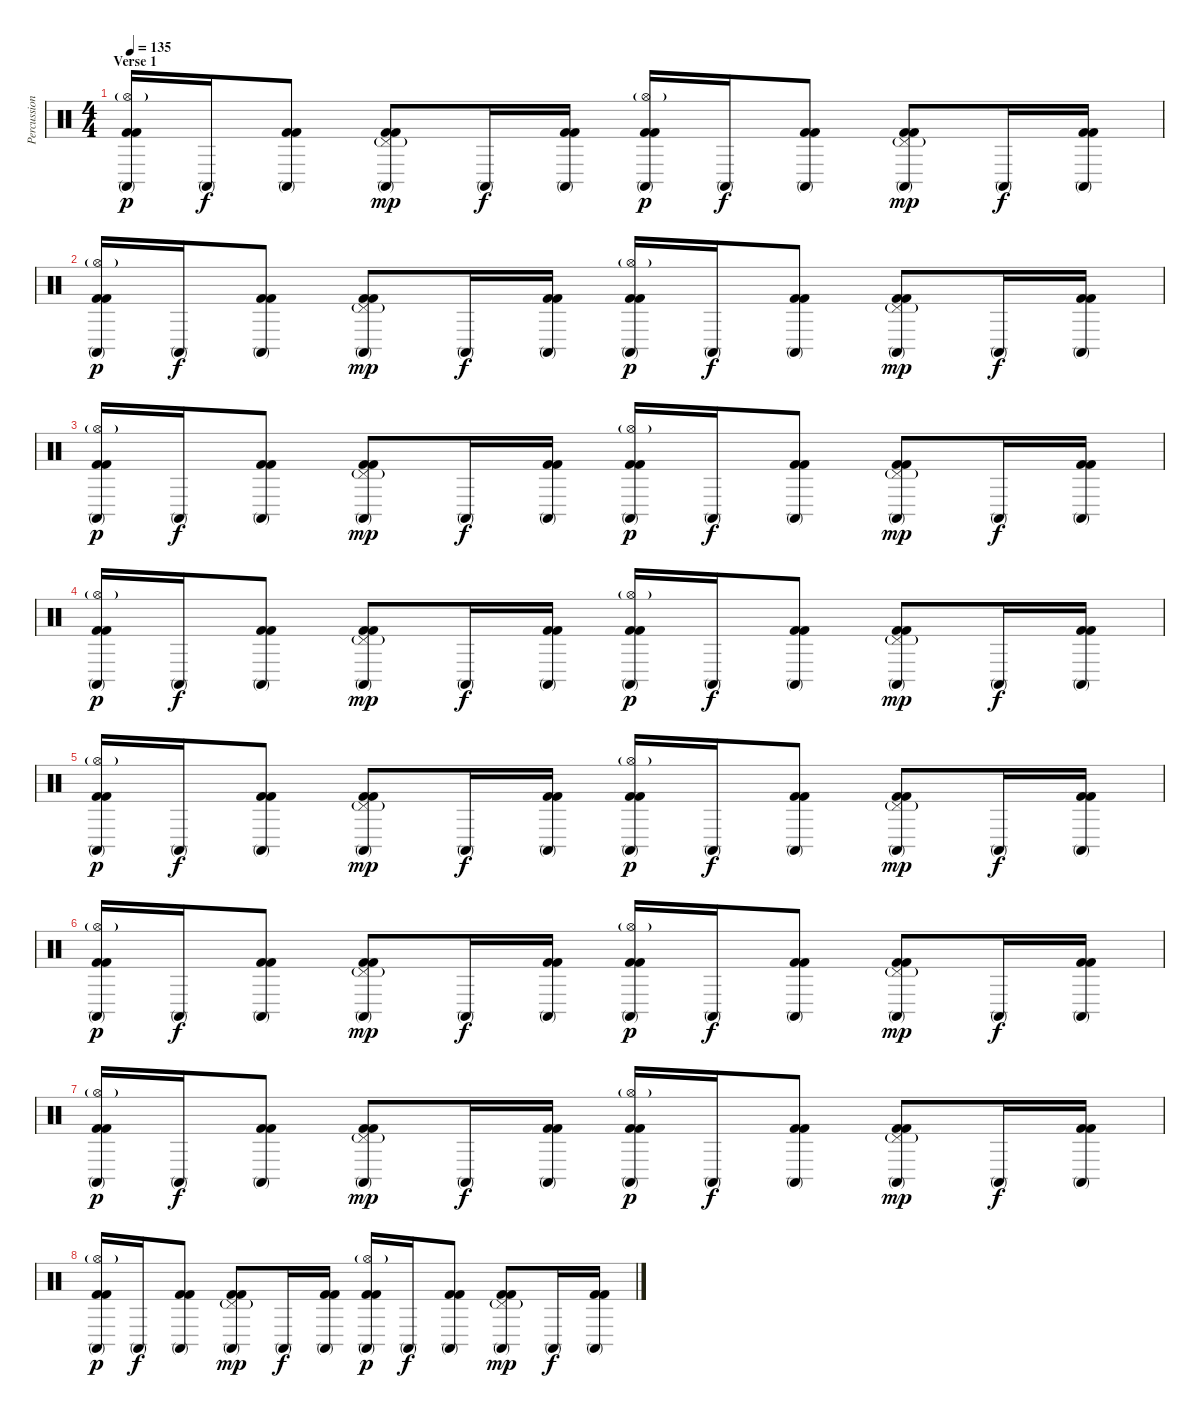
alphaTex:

\track ("Percussion" "Percussion") {instrument percussion}
\staff {score}
\articulation defaults
\ts (4 4)
\section ("" "Verse 1")
\tempo 135
\clef neutral
\ks c
("Conga high (mute)" "Hi-Hat (open)"{g} "Kick (hit) 2" "Kick (hit) 2").16{dy p} "Conga high (mute)".16{dy f} ("Conga high (mute)" "Kick (hit) 2" "Kick (hit) 2").8 ("Conga high (mute)" "Pedal Hi-Hat (hit)"{g} "Kick (hit) 2" "Kick (hit) 2").8{dy mp} "Conga high (mute)".16{dy f} ("Conga high (mute)" "Kick (hit) 2" "Kick (hit) 2").16 ("Conga high (mute)" "Hi-Hat (open)"{g} "Kick (hit) 2" "Kick (hit) 2").16{dy p} "Conga high (mute)".16{dy f} ("Conga high (mute)" "Kick (hit) 2" "Kick (hit) 2").8 ("Conga high (mute)" "Pedal Hi-Hat (hit)"{g} "Kick (hit) 2" "Kick (hit) 2").8{dy mp} "Conga high (mute)".16{dy f} ("Conga high (mute)" "Kick (hit) 2" "Kick (hit) 2").16 |
("Conga high (mute)" "Hi-Hat (open)"{g} "Kick (hit) 2" "Kick (hit) 2").16{dy p} "Conga high (mute)".16{dy f} ("Conga high (mute)" "Kick (hit) 2" "Kick (hit) 2").8 ("Conga high (mute)" "Pedal Hi-Hat (hit)"{g} "Kick (hit) 2" "Kick (hit) 2").8{dy mp} "Conga high (mute)".16{dy f} ("Conga high (mute)" "Kick (hit) 2" "Kick (hit) 2").16 ("Conga high (mute)" "Hi-Hat (open)"{g} "Kick (hit) 2" "Kick (hit) 2").16{dy p} "Conga high (mute)".16{dy f} ("Conga high (mute)" "Kick (hit) 2" "Kick (hit) 2").8 ("Conga high (mute)" "Pedal Hi-Hat (hit)"{g} "Kick (hit) 2" "Kick (hit) 2").8{dy mp} "Conga high (mute)".16{dy f} ("Conga high (mute)" "Kick (hit) 2" "Kick (hit) 2").16 |
("Conga high (mute)" "Hi-Hat (open)"{g} "Kick (hit) 2" "Kick (hit) 2").16{dy p} "Conga high (mute)".16{dy f} ("Conga high (mute)" "Kick (hit) 2" "Kick (hit) 2").8 ("Conga high (mute)" "Pedal Hi-Hat (hit)"{g} "Kick (hit) 2" "Kick (hit) 2").8{dy mp} "Conga high (mute)".16{dy f} ("Conga high (mute)" "Kick (hit) 2" "Kick (hit) 2").16 ("Conga high (mute)" "Hi-Hat (open)"{g} "Kick (hit) 2" "Kick (hit) 2").16{dy p} "Conga high (mute)".16{dy f} ("Conga high (mute)" "Kick (hit) 2" "Kick (hit) 2").8 ("Conga high (mute)" "Pedal Hi-Hat (hit)"{g} "Kick (hit) 2" "Kick (hit) 2").8{dy mp} "Conga high (mute)".16{dy f} ("Conga high (mute)" "Kick (hit) 2" "Kick (hit) 2").16 |
("Conga high (mute)" "Hi-Hat (open)"{g} "Kick (hit) 2" "Kick (hit) 2").16{dy p} "Conga high (mute)".16{dy f} ("Conga high (mute)" "Kick (hit) 2" "Kick (hit) 2").8 ("Conga high (mute)" "Pedal Hi-Hat (hit)"{g} "Kick (hit) 2" "Kick (hit) 2").8{dy mp} "Conga high (mute)".16{dy f} ("Conga high (mute)" "Kick (hit) 2" "Kick (hit) 2").16 ("Conga high (mute)" "Hi-Hat (open)"{g} "Kick (hit) 2" "Kick (hit) 2").16{dy p} "Conga high (mute)".16{dy f} ("Conga high (mute)" "Kick (hit) 2" "Kick (hit) 2").8 ("Conga high (mute)" "Pedal Hi-Hat (hit)"{g} "Kick (hit) 2" "Kick (hit) 2").8{dy mp} "Conga high (mute)".16{dy f} ("Conga high (mute)" "Kick (hit) 2" "Kick (hit) 2").16 |
("Conga high (mute)" "Hi-Hat (open)"{g} "Kick (hit) 2" "Kick (hit) 2").16{dy p} "Conga high (mute)".16{dy f} ("Conga high (mute)" "Kick (hit) 2" "Kick (hit) 2").8 ("Conga high (mute)" "Pedal Hi-Hat (hit)"{g} "Kick (hit) 2" "Kick (hit) 2").8{dy mp} "Conga high (mute)".16{dy f} ("Conga high (mute)" "Kick (hit) 2" "Kick (hit) 2").16 ("Conga high (mute)" "Hi-Hat (open)"{g} "Kick (hit) 2" "Kick (hit) 2").16{dy p} "Conga high (mute)".16{dy f} ("Conga high (mute)" "Kick (hit) 2" "Kick (hit) 2").8 ("Conga high (mute)" "Pedal Hi-Hat (hit)"{g} "Kick (hit) 2" "Kick (hit) 2").8{dy mp} "Conga high (mute)".16{dy f} ("Conga high (mute)" "Kick (hit) 2" "Kick (hit) 2").16 |
("Conga high (mute)" "Hi-Hat (open)"{g} "Kick (hit) 2" "Kick (hit) 2").16{dy p} "Conga high (mute)".16{dy f} ("Conga high (mute)" "Kick (hit) 2" "Kick (hit) 2").8 ("Conga high (mute)" "Pedal Hi-Hat (hit)"{g} "Kick (hit) 2" "Kick (hit) 2").8{dy mp} "Conga high (mute)".16{dy f} ("Conga high (mute)" "Kick (hit) 2" "Kick (hit) 2").16 ("Conga high (mute)" "Hi-Hat (open)"{g} "Kick (hit) 2" "Kick (hit) 2").16{dy p} "Conga high (mute)".16{dy f} ("Conga high (mute)" "Kick (hit) 2" "Kick (hit) 2").8 ("Conga high (mute)" "Pedal Hi-Hat (hit)"{g} "Kick (hit) 2" "Kick (hit) 2").8{dy mp} "Conga high (mute)".16{dy f} ("Conga high (mute)" "Kick (hit) 2" "Kick (hit) 2").16 |
("Conga high (mute)" "Hi-Hat (open)"{g} "Kick (hit) 2" "Kick (hit) 2").16{dy p} "Conga high (mute)".16{dy f} ("Conga high (mute)" "Kick (hit) 2" "Kick (hit) 2").8 ("Conga high (mute)" "Pedal Hi-Hat (hit)"{g} "Kick (hit) 2" "Kick (hit) 2").8{dy mp} "Conga high (mute)".16{dy f} ("Conga high (mute)" "Kick (hit) 2" "Kick (hit) 2").16 ("Conga high (mute)" "Hi-Hat (open)"{g} "Kick (hit) 2" "Kick (hit) 2").16{dy p} "Conga high (mute)".16{dy f} ("Conga high (mute)" "Kick (hit) 2" "Kick (hit) 2").8 ("Conga high (mute)" "Pedal Hi-Hat (hit)"{g} "Kick (hit) 2" "Kick (hit) 2").8{dy mp} "Conga high (mute)".16{dy f} ("Conga high (mute)" "Kick (hit) 2" "Kick (hit) 2").16 |
("Conga high (mute)" "Hi-Hat (open)"{g} "Kick (hit) 2" "Kick (hit) 2").16{dy p} "Conga high (mute)".16{dy f} ("Conga high (mute)" "Kick (hit) 2" "Kick (hit) 2").8 ("Conga high (mute)" "Pedal Hi-Hat (hit)"{g} "Kick (hit) 2" "Kick (hit) 2").8{dy mp} "Conga high (mute)".16{dy f} ("Conga high (mute)" "Kick (hit) 2" "Kick (hit) 2").16 ("Conga high (mute)" "Hi-Hat (open)"{g} "Kick (hit) 2" "Kick (hit) 2").16{dy p} "Conga high (mute)".16{dy f} ("Conga high (mute)" "Kick (hit) 2" "Kick (hit) 2").8 ("Conga high (mute)" "Pedal Hi-Hat (hit)"{g} "Kick (hit) 2" "Kick (hit) 2").8{dy mp} "Conga high (mute)".16{dy f} ("Conga high (mute)" "Kick (hit) 2" "Kick (hit) 2").16
